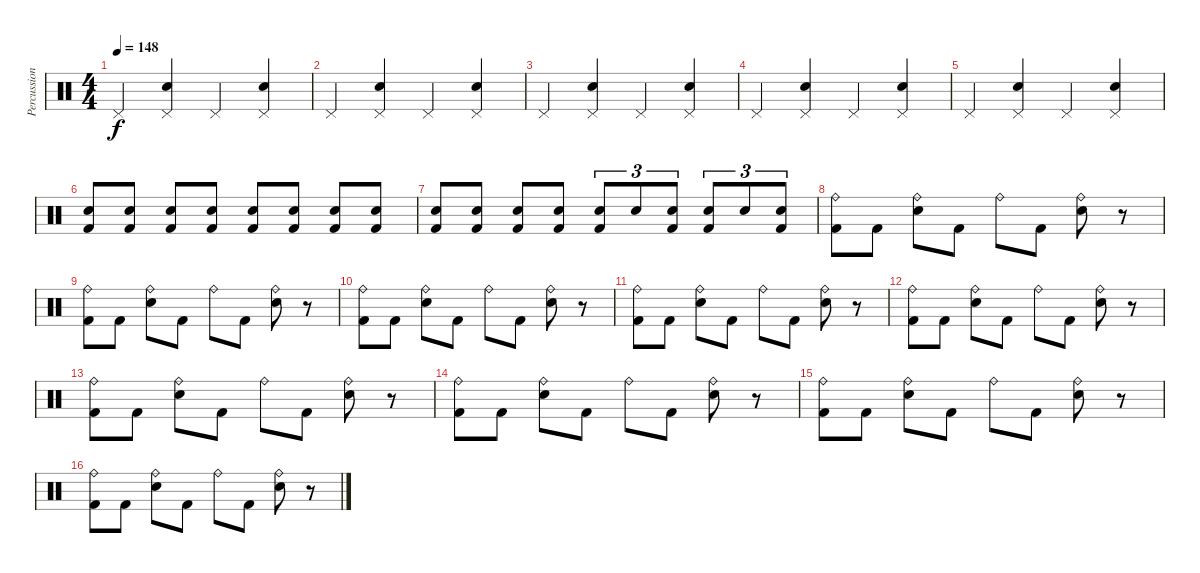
\track ("Percussions" "Percussion") {instrument percussion}
\staff {score}
\articulation defaults
\ts (4 4)
\tempo 148
\clef neutral
\ks c "Pedal Hi-Hat (hit)".4{dy f}
("Electric Snare (hit)" "Pedal Hi-Hat (hit)").4 "Pedal Hi-Hat (hit)".4 ("Electric Snare (hit)" "Pedal Hi-Hat (hit)").4 |
"Pedal Hi-Hat (hit)".4 ("Electric Snare (hit)" "Pedal Hi-Hat (hit)").4 "Pedal Hi-Hat (hit)".4 ("Electric Snare (hit)" "Pedal Hi-Hat (hit)").4 |
"Pedal Hi-Hat (hit)".4 ("Electric Snare (hit)" "Pedal Hi-Hat (hit)").4 "Pedal Hi-Hat (hit)".4 ("Electric Snare (hit)" "Pedal Hi-Hat (hit)").4 |
"Pedal Hi-Hat (hit)".4 ("Electric Snare (hit)" "Pedal Hi-Hat (hit)").4 "Pedal Hi-Hat (hit)".4 ("Electric Snare (hit)" "Pedal Hi-Hat (hit)").4 |
"Pedal Hi-Hat (hit)".4 ("Electric Snare (hit)" "Pedal Hi-Hat (hit)").4 "Pedal Hi-Hat (hit)".4 ("Electric Snare (hit)" "Pedal Hi-Hat (hit)").4 |
("Kick (hit) 2" "Snare (hit) 2").8 ("Kick (hit) 2" "Snare (hit) 2").8 ("Kick (hit) 2" "Snare (hit) 2").8 ("Kick (hit) 2" "Snare (hit) 2").8 ("Kick (hit) 2" "Snare (hit) 2").8 ("Kick (hit) 2" "Snare (hit) 2").8 ("Kick (hit) 2" "Snare (hit) 2").8 ("Kick (hit) 2" "Snare (hit) 2").8 |
("Kick (hit) 2" "Snare (hit) 2").8 ("Kick (hit) 2" "Snare (hit) 2").8 ("Kick (hit) 2" "Snare (hit) 2").8 ("Kick (hit) 2" "Snare (hit) 2").8 ("Kick (hit) 2" "Electric Snare (hit)").8{tu (3 2)} "Electric Snare (hit)".8{tu (3 2)} ("Kick (hit) 2" "Electric Snare (hit)").8{tu (3 2)} ("Kick (hit) 2" "Electric Snare (hit)").8{tu (3 2)} "Electric Snare (hit)".8{tu (3 2)} ("Kick (hit) 2" "Electric Snare (hit)").8{tu (3 2)} |
("Kick (hit) 2" "Ride (bell)").8 "Kick (hit) 2".8 ("Electric Snare (hit)" "Ride (bell)").8 "Kick (hit) 2".8 "Ride (bell)".8 "Kick (hit) 2".8 ("Electric Snare (hit)" "Ride (bell)").8 r.8 |
("Kick (hit) 2" "Ride (bell)").8 "Kick (hit) 2".8 ("Electric Snare (hit)" "Ride (bell)").8 "Kick (hit) 2".8 "Ride (bell)".8 "Kick (hit) 2".8 ("Electric Snare (hit)" "Ride (bell)").8 r.8 |
("Kick (hit) 2" "Ride (bell)").8 "Kick (hit) 2".8 ("Electric Snare (hit)" "Ride (bell)").8 "Kick (hit) 2".8 "Ride (bell)".8 "Kick (hit) 2".8 ("Electric Snare (hit)" "Ride (bell)").8 r.8 |
("Kick (hit) 2" "Ride (bell)").8 "Kick (hit) 2".8 ("Electric Snare (hit)" "Ride (bell)").8 "Kick (hit) 2".8 "Ride (bell)".8 "Kick (hit) 2".8 ("Electric Snare (hit)" "Ride (bell)").8 r.8 |
("Kick (hit) 2" "Ride (bell)").8 "Kick (hit) 2".8 ("Electric Snare (hit)" "Ride (bell)").8 "Kick (hit) 2".8 "Ride (bell)".8 "Kick (hit) 2".8 ("Electric Snare (hit)" "Ride (bell)").8 r.8 |
("Kick (hit) 2" "Ride (bell)").8 "Kick (hit) 2".8 ("Electric Snare (hit)" "Ride (bell)").8 "Kick (hit) 2".8 "Ride (bell)".8 "Kick (hit) 2".8 ("Electric Snare (hit)" "Ride (bell)").8 r.8 |
("Kick (hit) 2" "Ride (bell)").8 "Kick (hit) 2".8 ("Electric Snare (hit)" "Ride (bell)").8 "Kick (hit) 2".8 "Ride (bell)".8 "Kick (hit) 2".8 ("Electric Snare (hit)" "Ride (bell)").8 r.8 |
("Kick (hit) 2" "Ride (bell)").8 "Kick (hit) 2".8 ("Electric Snare (hit)" "Ride (bell)").8 "Kick (hit) 2".8 "Ride (bell)".8 "Kick (hit) 2".8 ("Electric Snare (hit)" "Ride (bell)").8 r.8 |
("Kick (hit) 2" "Ride (bell)").8 "Kick (hit) 2".8 ("Electric Snare (hit)" "Ride (bell)").8 "Kick (hit) 2".8 "Ride (bell)".8 "Kick (hit) 2".8 ("Electric Snare (hit)" "Ride (bell)").8 r.8
